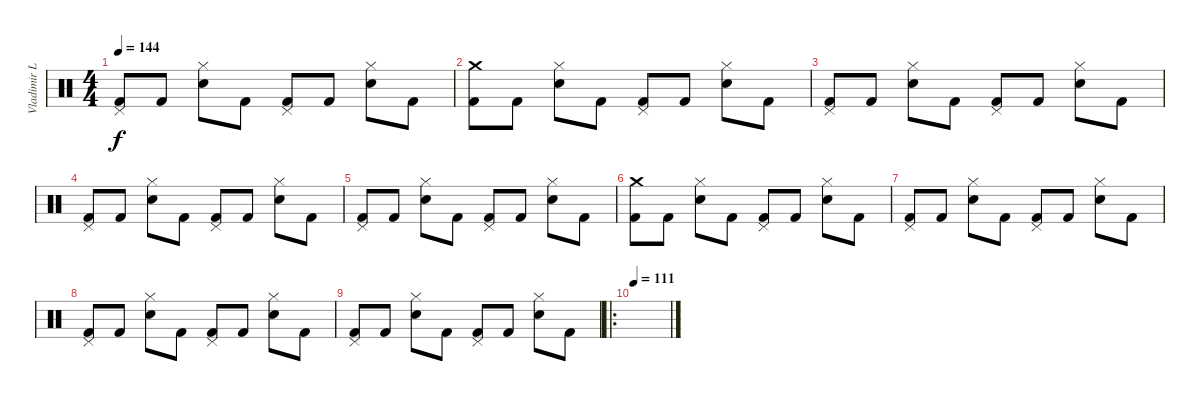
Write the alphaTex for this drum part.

\track ("Vladimir L." "Vladimir L") {solo instrument percussion}
\staff {score}
\articulation defaults
\ts (4 4)
\tempo 144
\clef neutral
\ks c
("Kick (hit) 2" "Pedal Hi-Hat (hit)").8{dy f} "Kick (hit) 2".8 ("Electric Snare (hit)" "Hi-Hat (closed)").8 "Kick (hit) 2".8 ("Kick (hit) 2" "Pedal Hi-Hat (hit)").8 "Kick (hit) 2".8 ("Electric Snare (hit)" "Hi-Hat (closed)").8 "Kick (hit) 2".8 |
("Kick (hit) 2" "Crash medium (hit)").8 "Kick (hit) 2".8 ("Electric Snare (hit)" "Hi-Hat (closed)").8 "Kick (hit) 2".8 ("Kick (hit) 2" "Pedal Hi-Hat (hit)").8 "Kick (hit) 2".8 ("Electric Snare (hit)" "Hi-Hat (closed)").8 "Kick (hit) 2".8 |
("Kick (hit) 2" "Pedal Hi-Hat (hit)").8 "Kick (hit) 2".8 ("Electric Snare (hit)" "Hi-Hat (closed)").8 "Kick (hit) 2".8 ("Kick (hit) 2" "Pedal Hi-Hat (hit)").8 "Kick (hit) 2".8 ("Electric Snare (hit)" "Hi-Hat (closed)").8 "Kick (hit) 2".8 |
("Kick (hit) 2" "Pedal Hi-Hat (hit)").8 "Kick (hit) 2".8 ("Electric Snare (hit)" "Hi-Hat (closed)").8 "Kick (hit) 2".8 ("Kick (hit) 2" "Pedal Hi-Hat (hit)").8 "Kick (hit) 2".8 ("Electric Snare (hit)" "Hi-Hat (closed)").8 "Kick (hit) 2".8 |
("Kick (hit) 2" "Pedal Hi-Hat (hit)").8 "Kick (hit) 2".8 ("Electric Snare (hit)" "Hi-Hat (closed)").8 "Kick (hit) 2".8 ("Kick (hit) 2" "Pedal Hi-Hat (hit)").8 "Kick (hit) 2".8 ("Electric Snare (hit)" "Hi-Hat (closed)").8 "Kick (hit) 2".8 |
("Kick (hit) 2" "Crash medium (hit)").8 "Kick (hit) 2".8 ("Electric Snare (hit)" "Hi-Hat (closed)").8 "Kick (hit) 2".8 ("Kick (hit) 2" "Pedal Hi-Hat (hit)").8 "Kick (hit) 2".8 ("Electric Snare (hit)" "Hi-Hat (closed)").8 "Kick (hit) 2".8 |
("Kick (hit) 2" "Pedal Hi-Hat (hit)").8 "Kick (hit) 2".8 ("Electric Snare (hit)" "Hi-Hat (closed)").8 "Kick (hit) 2".8 ("Kick (hit) 2" "Pedal Hi-Hat (hit)").8 "Kick (hit) 2".8 ("Electric Snare (hit)" "Hi-Hat (closed)").8 "Kick (hit) 2".8 |
("Kick (hit) 2" "Pedal Hi-Hat (hit)").8 "Kick (hit) 2".8 ("Electric Snare (hit)" "Hi-Hat (closed)").8 "Kick (hit) 2".8 ("Kick (hit) 2" "Pedal Hi-Hat (hit)").8 "Kick (hit) 2".8 ("Electric Snare (hit)" "Hi-Hat (closed)").8 "Kick (hit) 2".8 |
("Kick (hit) 2" "Pedal Hi-Hat (hit)").8 "Kick (hit) 2".8 ("Electric Snare (hit)" "Hi-Hat (closed)").8 "Kick (hit) 2".8 ("Kick (hit) 2" "Pedal Hi-Hat (hit)").8 "Kick (hit) 2".8 ("Electric Snare (hit)" "Hi-Hat (closed)").8 "Kick (hit) 2".8 |
\ro
\tempo 111
